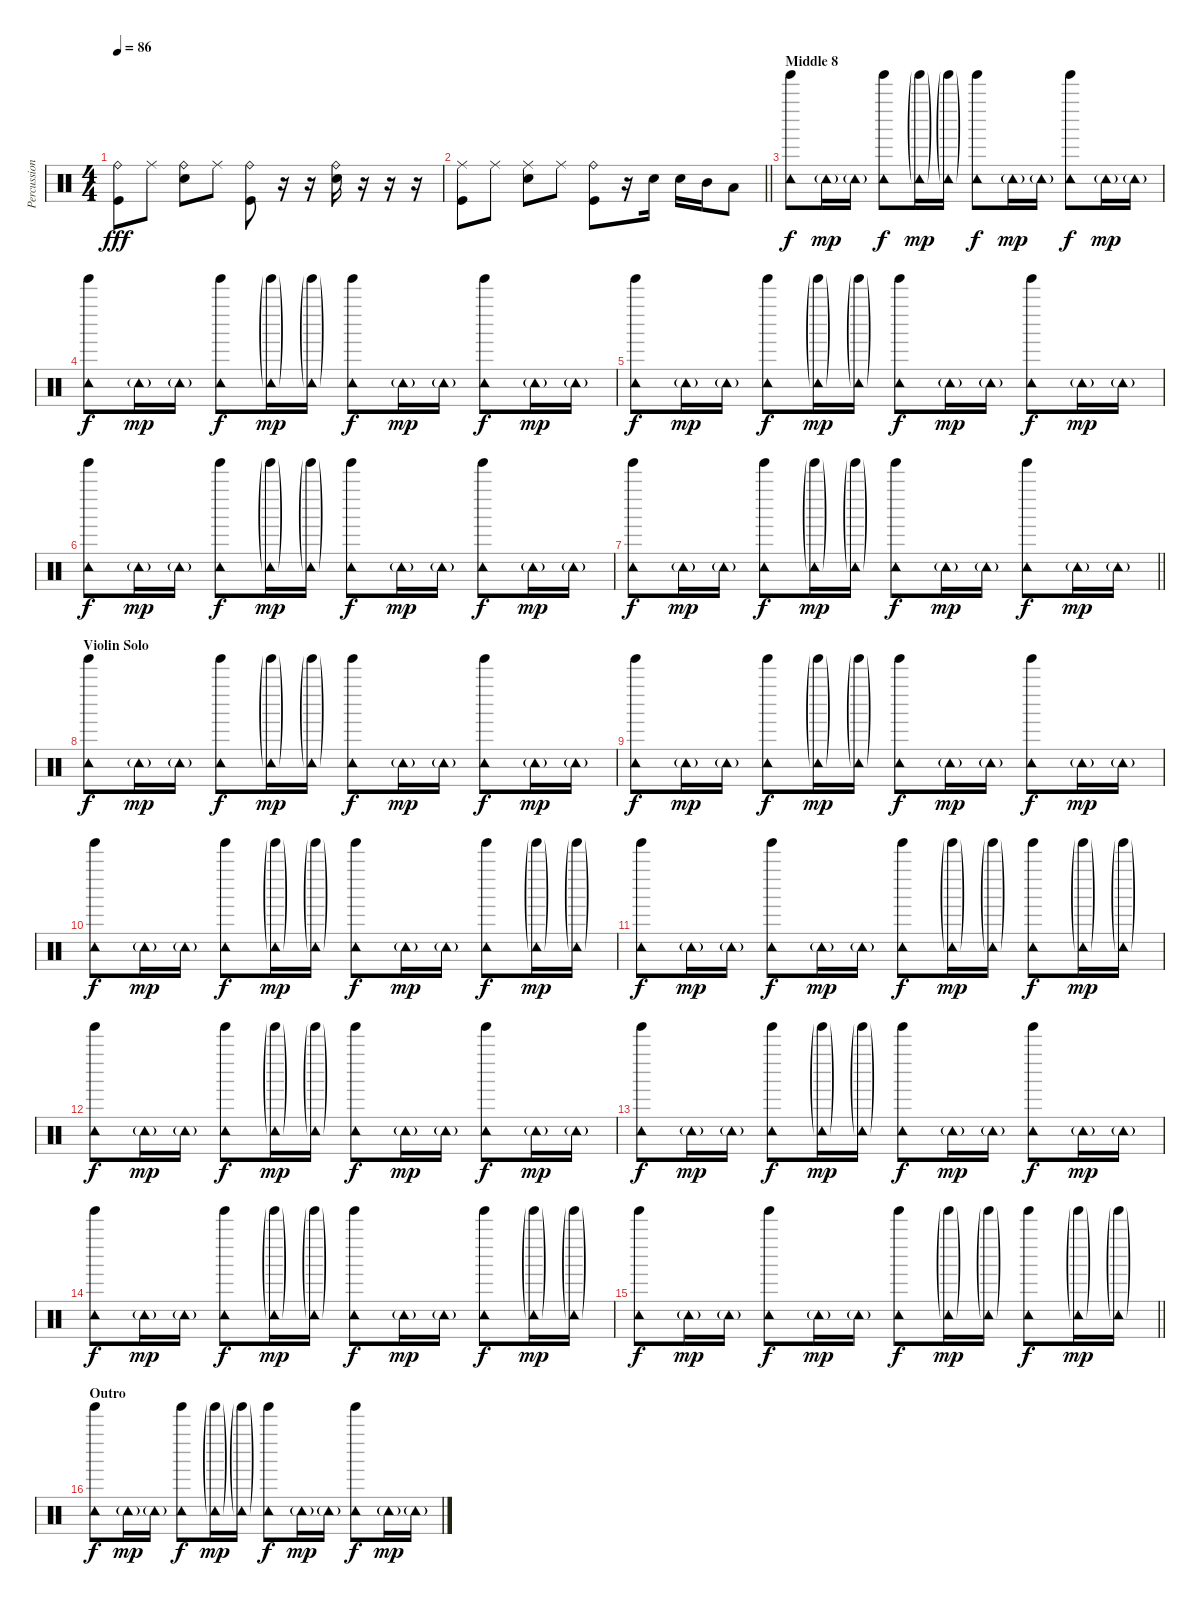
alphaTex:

\track ("Percussion 1" "Percussion") {instrument percussion}
\staff {score}
\articulation defaults
\ts (4 4)
\tempo 86
\clef neutral
\ks c
("Ride (bell)" "Kick (hit)").8{dy fff} "Ride (middle)".8 ("Ride (bell)" "Electric Snare (hit)").8 "Ride (middle)".8 ("Ride (bell)" "Kick (hit)").8 r.16 r.16 ("Ride (bell)" "Electric Snare (hit)").16 r.16 r.16 r.16 |
\barLineRight lightlight
("Ride (middle)" "Kick (hit)").8 "Ride (middle)".8 ("Ride (middle)" "Electric Snare (hit)").8 "Ride (middle)".8 ("Ride (bell)" "Kick (hit)").8 r.16 "Electric Snare (hit)".16 "Electric Snare (hit)".16 "Mid Tom (hit)".16 "Low Tom (hit)".8 |
\section ("" "Middle 8")
("Tinkle Bell (hit)" "Tambourine (hit)").8{dy f} "Tambourine (hit)"{g}.16{dy mp} "Tambourine (hit)"{g}.16 ("Tinkle Bell (hit)" "Tambourine (hit)").8{dy f} ("Tinkle Bell (hit)"{g} "Tambourine (hit)"{g}).16{dy mp} ("Tinkle Bell (hit)"{g} "Tambourine (hit)"{g}).16 ("Tinkle Bell (hit)" "Tambourine (hit)").8{dy f} "Tambourine (hit)"{g}.16{dy mp} "Tambourine (hit)"{g}.16 ("Tinkle Bell (hit)" "Tambourine (hit)").8{dy f} "Tambourine (hit)"{g}.16{dy mp} "Tambourine (hit)"{g}.16 |
("Tinkle Bell (hit)" "Tambourine (hit)").8{dy f} "Tambourine (hit)"{g}.16{dy mp} "Tambourine (hit)"{g}.16 ("Tinkle Bell (hit)" "Tambourine (hit)").8{dy f} ("Tinkle Bell (hit)"{g} "Tambourine (hit)"{g}).16{dy mp} ("Tinkle Bell (hit)"{g} "Tambourine (hit)"{g}).16 ("Tinkle Bell (hit)" "Tambourine (hit)").8{dy f} "Tambourine (hit)"{g}.16{dy mp} "Tambourine (hit)"{g}.16 ("Tinkle Bell (hit)" "Tambourine (hit)").8{dy f} "Tambourine (hit)"{g}.16{dy mp} "Tambourine (hit)"{g}.16 |
("Tinkle Bell (hit)" "Tambourine (hit)").8{dy f} "Tambourine (hit)"{g}.16{dy mp} "Tambourine (hit)"{g}.16 ("Tinkle Bell (hit)" "Tambourine (hit)").8{dy f} ("Tinkle Bell (hit)"{g} "Tambourine (hit)"{g}).16{dy mp} ("Tinkle Bell (hit)"{g} "Tambourine (hit)"{g}).16 ("Tinkle Bell (hit)" "Tambourine (hit)").8{dy f} "Tambourine (hit)"{g}.16{dy mp} "Tambourine (hit)"{g}.16 ("Tinkle Bell (hit)" "Tambourine (hit)").8{dy f} "Tambourine (hit)"{g}.16{dy mp} "Tambourine (hit)"{g}.16 |
("Tinkle Bell (hit)" "Tambourine (hit)").8{dy f} "Tambourine (hit)"{g}.16{dy mp} "Tambourine (hit)"{g}.16 ("Tinkle Bell (hit)" "Tambourine (hit)").8{dy f} ("Tinkle Bell (hit)"{g} "Tambourine (hit)"{g}).16{dy mp} ("Tinkle Bell (hit)"{g} "Tambourine (hit)"{g}).16 ("Tinkle Bell (hit)" "Tambourine (hit)").8{dy f} "Tambourine (hit)"{g}.16{dy mp} "Tambourine (hit)"{g}.16 ("Tinkle Bell (hit)" "Tambourine (hit)").8{dy f} "Tambourine (hit)"{g}.16{dy mp} "Tambourine (hit)"{g}.16 |
\barLineRight lightlight
("Tinkle Bell (hit)" "Tambourine (hit)").8{dy f} "Tambourine (hit)"{g}.16{dy mp} "Tambourine (hit)"{g}.16 ("Tinkle Bell (hit)" "Tambourine (hit)").8{dy f} ("Tinkle Bell (hit)"{g} "Tambourine (hit)"{g}).16{dy mp} ("Tinkle Bell (hit)"{g} "Tambourine (hit)"{g}).16 ("Tinkle Bell (hit)" "Tambourine (hit)").8{dy f} "Tambourine (hit)"{g}.16{dy mp} "Tambourine (hit)"{g}.16 ("Tinkle Bell (hit)" "Tambourine (hit)").8{dy f} "Tambourine (hit)"{g}.16{dy mp} "Tambourine (hit)"{g}.16 |
\section ("" "Violin Solo")
("Tinkle Bell (hit)" "Tambourine (hit)").8{dy f} "Tambourine (hit)"{g}.16{dy mp} "Tambourine (hit)"{g}.16 ("Tinkle Bell (hit)" "Tambourine (hit)").8{dy f} ("Tinkle Bell (hit)"{g} "Tambourine (hit)"{g}).16{dy mp} ("Tinkle Bell (hit)"{g} "Tambourine (hit)"{g}).16 ("Tinkle Bell (hit)" "Tambourine (hit)").8{dy f} "Tambourine (hit)"{g}.16{dy mp} "Tambourine (hit)"{g}.16 ("Tinkle Bell (hit)" "Tambourine (hit)").8{dy f} "Tambourine (hit)"{g}.16{dy mp} "Tambourine (hit)"{g}.16 |
("Tinkle Bell (hit)" "Tambourine (hit)").8{dy f} "Tambourine (hit)"{g}.16{dy mp} "Tambourine (hit)"{g}.16 ("Tinkle Bell (hit)" "Tambourine (hit)").8{dy f} ("Tinkle Bell (hit)"{g} "Tambourine (hit)"{g}).16{dy mp} ("Tinkle Bell (hit)"{g} "Tambourine (hit)"{g}).16 ("Tinkle Bell (hit)" "Tambourine (hit)").8{dy f} "Tambourine (hit)"{g}.16{dy mp} "Tambourine (hit)"{g}.16 ("Tinkle Bell (hit)" "Tambourine (hit)").8{dy f} "Tambourine (hit)"{g}.16{dy mp} "Tambourine (hit)"{g}.16 |
("Tinkle Bell (hit)" "Tambourine (hit)").8{dy f} "Tambourine (hit)"{g}.16{dy mp} "Tambourine (hit)"{g}.16 ("Tinkle Bell (hit)" "Tambourine (hit)").8{dy f} ("Tinkle Bell (hit)"{g} "Tambourine (hit)"{g}).16{dy mp} ("Tinkle Bell (hit)"{g} "Tambourine (hit)"{g}).16 ("Tinkle Bell (hit)" "Tambourine (hit)").8{dy f} "Tambourine (hit)"{g}.16{dy mp} "Tambourine (hit)"{g}.16 ("Tinkle Bell (hit)" "Tambourine (hit)").8{dy f} ("Tinkle Bell (hit)"{g} "Tambourine (hit)"{g}).16{dy mp} ("Tinkle Bell (hit)"{g} "Tambourine (hit)"{g}).16 |
("Tinkle Bell (hit)" "Tambourine (hit)").8{dy f} "Tambourine (hit)"{g}.16{dy mp} "Tambourine (hit)"{g}.16 ("Tinkle Bell (hit)" "Tambourine (hit)").8{dy f} "Tambourine (hit)"{g}.16{dy mp} "Tambourine (hit)"{g}.16 ("Tinkle Bell (hit)" "Tambourine (hit)").8{dy f} ("Tinkle Bell (hit)"{g} "Tambourine (hit)"{g}).16{dy mp} ("Tinkle Bell (hit)"{g} "Tambourine (hit)"{g}).16 ("Tinkle Bell (hit)" "Tambourine (hit)").8{dy f} ("Tinkle Bell (hit)"{g} "Tambourine (hit)"{g}).16{dy mp} ("Tinkle Bell (hit)"{g} "Tambourine (hit)"{g}).16 |
("Tinkle Bell (hit)" "Tambourine (hit)").8{dy f} "Tambourine (hit)"{g}.16{dy mp} "Tambourine (hit)"{g}.16 ("Tinkle Bell (hit)" "Tambourine (hit)").8{dy f} ("Tinkle Bell (hit)"{g} "Tambourine (hit)"{g}).16{dy mp} ("Tinkle Bell (hit)"{g} "Tambourine (hit)"{g}).16 ("Tinkle Bell (hit)" "Tambourine (hit)").8{dy f} "Tambourine (hit)"{g}.16{dy mp} "Tambourine (hit)"{g}.16 ("Tinkle Bell (hit)" "Tambourine (hit)").8{dy f} "Tambourine (hit)"{g}.16{dy mp} "Tambourine (hit)"{g}.16 |
("Tinkle Bell (hit)" "Tambourine (hit)").8{dy f} "Tambourine (hit)"{g}.16{dy mp} "Tambourine (hit)"{g}.16 ("Tinkle Bell (hit)" "Tambourine (hit)").8{dy f} ("Tinkle Bell (hit)"{g} "Tambourine (hit)"{g}).16{dy mp} ("Tinkle Bell (hit)"{g} "Tambourine (hit)"{g}).16 ("Tinkle Bell (hit)" "Tambourine (hit)").8{dy f} "Tambourine (hit)"{g}.16{dy mp} "Tambourine (hit)"{g}.16 ("Tinkle Bell (hit)" "Tambourine (hit)").8{dy f} "Tambourine (hit)"{g}.16{dy mp} "Tambourine (hit)"{g}.16 |
("Tinkle Bell (hit)" "Tambourine (hit)").8{dy f} "Tambourine (hit)"{g}.16{dy mp} "Tambourine (hit)"{g}.16 ("Tinkle Bell (hit)" "Tambourine (hit)").8{dy f} ("Tinkle Bell (hit)"{g} "Tambourine (hit)"{g}).16{dy mp} ("Tinkle Bell (hit)"{g} "Tambourine (hit)"{g}).16 ("Tinkle Bell (hit)" "Tambourine (hit)").8{dy f} "Tambourine (hit)"{g}.16{dy mp} "Tambourine (hit)"{g}.16 ("Tinkle Bell (hit)" "Tambourine (hit)").8{dy f} ("Tinkle Bell (hit)"{g} "Tambourine (hit)"{g}).16{dy mp} ("Tinkle Bell (hit)"{g} "Tambourine (hit)"{g}).16 |
\barLineRight lightlight
("Tinkle Bell (hit)" "Tambourine (hit)").8{dy f} "Tambourine (hit)"{g}.16{dy mp} "Tambourine (hit)"{g}.16 ("Tinkle Bell (hit)" "Tambourine (hit)").8{dy f} "Tambourine (hit)"{g}.16{dy mp} "Tambourine (hit)"{g}.16 ("Tinkle Bell (hit)" "Tambourine (hit)").8{dy f} ("Tinkle Bell (hit)"{g} "Tambourine (hit)"{g}).16{dy mp} ("Tinkle Bell (hit)"{g} "Tambourine (hit)"{g}).16 ("Tinkle Bell (hit)" "Tambourine (hit)").8{dy f} ("Tinkle Bell (hit)"{g} "Tambourine (hit)"{g}).16{dy mp} ("Tinkle Bell (hit)"{g} "Tambourine (hit)"{g}).16 |
\section ("" "Outro")
("Tinkle Bell (hit)" "Tambourine (hit)").8{dy f} "Tambourine (hit)"{g}.16{dy mp} "Tambourine (hit)"{g}.16 ("Tinkle Bell (hit)" "Tambourine (hit)").8{dy f} ("Tinkle Bell (hit)"{g} "Tambourine (hit)"{g}).16{dy mp} ("Tinkle Bell (hit)"{g} "Tambourine (hit)"{g}).16 ("Tinkle Bell (hit)" "Tambourine (hit)").8{dy f} "Tambourine (hit)"{g}.16{dy mp} "Tambourine (hit)"{g}.16 ("Tinkle Bell (hit)" "Tambourine (hit)").8{dy f} "Tambourine (hit)"{g}.16{dy mp} "Tambourine (hit)"{g}.16
